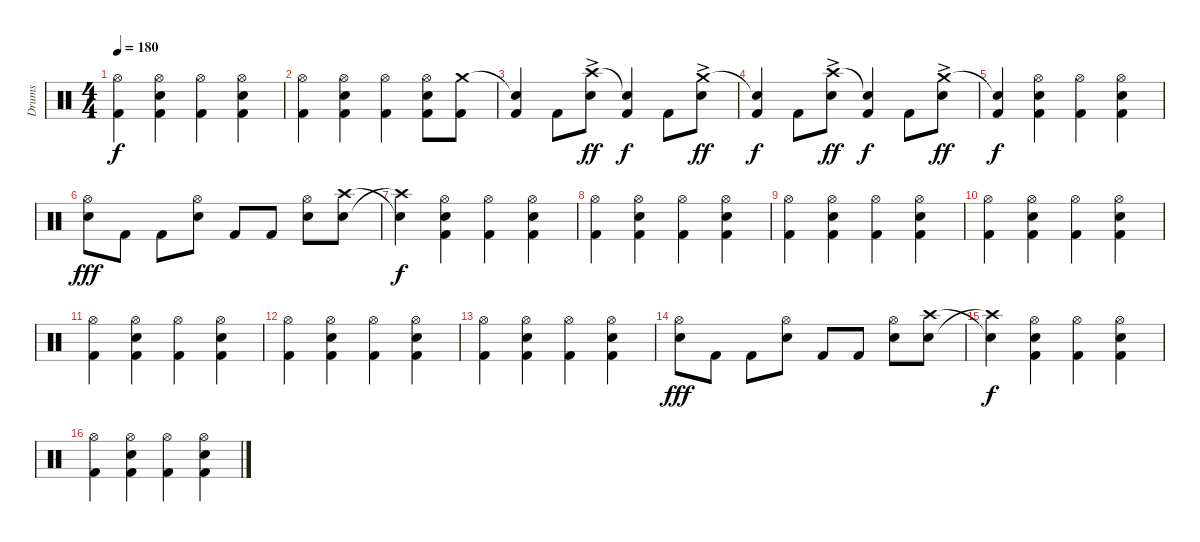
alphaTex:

\track ("Drums" "Drums") {instrument percussion}
\staff {score}
\articulation defaults
\ts (4 4)
\tempo 180
\clef neutral
\ks c
("Hi-Hat (open)" "Kick (hit) 2").4{dy f} ("Hi-Hat (open)" "Electric Snare (hit)" "Kick (hit) 2").4 ("Hi-Hat (open)" "Kick (hit) 2").4 ("Hi-Hat (open)" "Electric Snare (hit)" "Kick (hit) 2").4 |
("Hi-Hat (open)" "Kick (hit) 2").4 ("Hi-Hat (open)" "Electric Snare (hit)" "Kick (hit) 2").4 ("Hi-Hat (open)" "Kick (hit) 2").4 ("Hi-Hat (open)" "Electric Snare (hit)" "Kick (hit) 2").8 ("Crash medium (hit)" "Kick (hit) 2").8 |
("Snare (hit)"{t} "Kick (hit) 2").4 "Kick (hit) 2".8 ("Crash high (hit)"{ac} "Electric Snare (hit)").8{dy ff} ("Snare (hit)"{t} "Kick (hit) 2").4{dy f} "Kick (hit) 2".8 ("Crash medium (hit)"{ac} "Electric Snare (hit)").8{dy ff} |
("Snare (hit)"{t} "Kick (hit) 2").4{dy f} "Kick (hit) 2".8 ("Crash high (hit)"{ac} "Electric Snare (hit)").8{dy ff} ("Snare (hit)"{t} "Kick (hit) 2").4{dy f} "Kick (hit) 2".8 ("Crash medium (hit)"{ac} "Electric Snare (hit)").8{dy ff} |
("Snare (hit)"{t} "Kick (hit) 2").4{dy f} ("Hi-Hat (open)" "Electric Snare (hit)" "Kick (hit) 2").4 ("Hi-Hat (open)" "Kick (hit) 2").4 ("Hi-Hat (open)" "Electric Snare (hit)" "Kick (hit) 2").4 |
("Hi-Hat (open)" "Electric Snare (hit)").8{dy fff} "Kick (hit) 2".8 "Kick (hit) 2".8 ("Hi-Hat (open)" "Electric Snare (hit)").8 "Kick (hit) 2".8 "Kick (hit) 2".8 ("Hi-Hat (open)" "Electric Snare (hit)").8 ("Crash high (hit)" "Electric Snare (hit)").8 |
("Snare (hit)"{t} "Crash high (hit)"{t}).4{dy f} ("Hi-Hat (open)" "Electric Snare (hit)" "Kick (hit) 2").4 ("Hi-Hat (open)" "Kick (hit) 2").4 ("Hi-Hat (open)" "Electric Snare (hit)" "Kick (hit) 2").4 |
("Hi-Hat (open)" "Kick (hit) 2").4 ("Hi-Hat (open)" "Electric Snare (hit)" "Kick (hit) 2").4 ("Hi-Hat (open)" "Kick (hit) 2").4 ("Hi-Hat (open)" "Electric Snare (hit)" "Kick (hit) 2").4 |
("Hi-Hat (open)" "Kick (hit) 2").4 ("Hi-Hat (open)" "Electric Snare (hit)" "Kick (hit) 2").4 ("Hi-Hat (open)" "Kick (hit) 2").4 ("Hi-Hat (open)" "Electric Snare (hit)" "Kick (hit) 2").4 |
("Hi-Hat (open)" "Kick (hit) 2").4 ("Hi-Hat (open)" "Electric Snare (hit)" "Kick (hit) 2").4 ("Hi-Hat (open)" "Kick (hit) 2").4 ("Hi-Hat (open)" "Electric Snare (hit)" "Kick (hit) 2").4 |
("Hi-Hat (open)" "Kick (hit) 2").4 ("Hi-Hat (open)" "Electric Snare (hit)" "Kick (hit) 2").4 ("Hi-Hat (open)" "Kick (hit) 2").4 ("Hi-Hat (open)" "Electric Snare (hit)" "Kick (hit) 2").4 |
("Hi-Hat (open)" "Kick (hit) 2").4 ("Hi-Hat (open)" "Electric Snare (hit)" "Kick (hit) 2").4 ("Hi-Hat (open)" "Kick (hit) 2").4 ("Hi-Hat (open)" "Electric Snare (hit)" "Kick (hit) 2").4 |
("Hi-Hat (open)" "Kick (hit) 2").4 ("Hi-Hat (open)" "Electric Snare (hit)" "Kick (hit) 2").4 ("Hi-Hat (open)" "Kick (hit) 2").4 ("Hi-Hat (open)" "Electric Snare (hit)" "Kick (hit) 2").4 |
("Hi-Hat (open)" "Electric Snare (hit)").8{dy fff} "Kick (hit) 2".8 "Kick (hit) 2".8 ("Hi-Hat (open)" "Electric Snare (hit)").8 "Kick (hit) 2".8 "Kick (hit) 2".8 ("Hi-Hat (open)" "Electric Snare (hit)").8 ("Crash high (hit)" "Electric Snare (hit)").8 |
("Snare (hit)"{t} "Crash high (hit)"{t}).4{dy f} ("Hi-Hat (open)" "Electric Snare (hit)" "Kick (hit) 2").4 ("Hi-Hat (open)" "Kick (hit) 2").4 ("Hi-Hat (open)" "Electric Snare (hit)" "Kick (hit) 2").4 |
("Hi-Hat (open)" "Kick (hit) 2").4 ("Hi-Hat (open)" "Electric Snare (hit)" "Kick (hit) 2").4 ("Hi-Hat (open)" "Kick (hit) 2").4 ("Hi-Hat (open)" "Electric Snare (hit)" "Kick (hit) 2").4
